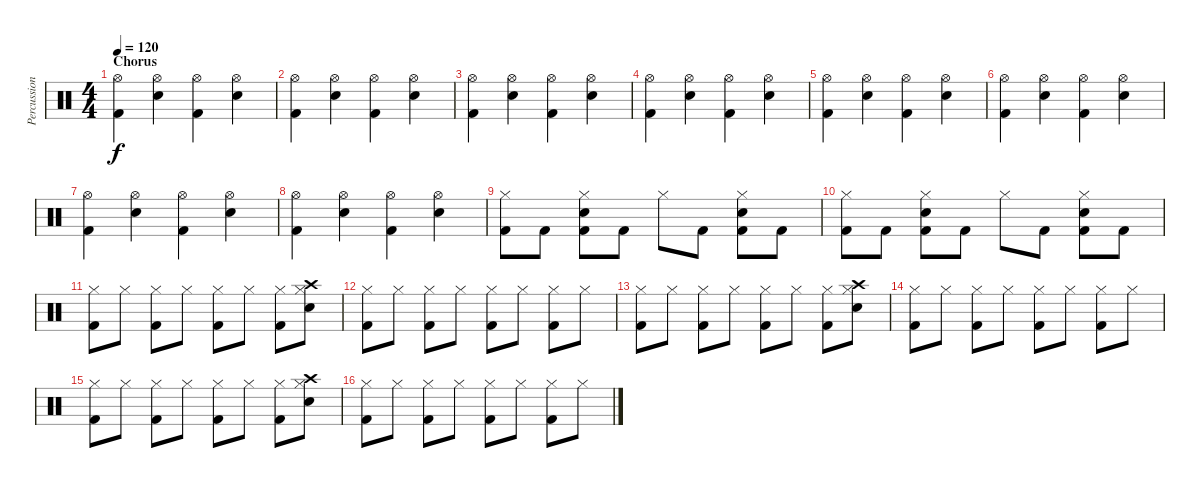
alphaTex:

\track ("Percussion" "Percussion") {instrument percussion}
\staff {score}
\articulation defaults
\ts (4 4)
\section ("" "Chorus")
\tempo 120
\clef neutral
\ks c
("Hi-Hat (open)" "Kick (hit) 2").4{dy f} ("Hi-Hat (open)" "Snare (hit) 2").4 ("Hi-Hat (open)" "Kick (hit) 2").4 ("Hi-Hat (open)" "Snare (hit) 2").4 |
("Hi-Hat (open)" "Kick (hit) 2").4 ("Hi-Hat (open)" "Snare (hit) 2").4 ("Hi-Hat (open)" "Kick (hit) 2").4 ("Hi-Hat (open)" "Snare (hit) 2").4 |
("Hi-Hat (open)" "Kick (hit) 2").4 ("Hi-Hat (open)" "Snare (hit) 2").4 ("Hi-Hat (open)" "Kick (hit) 2").4 ("Hi-Hat (open)" "Snare (hit) 2").4 |
("Hi-Hat (open)" "Kick (hit) 2").4 ("Hi-Hat (open)" "Snare (hit) 2").4 ("Hi-Hat (open)" "Kick (hit) 2").4 ("Hi-Hat (open)" "Snare (hit) 2").4 |
("Hi-Hat (open)" "Kick (hit) 2").4 ("Hi-Hat (open)" "Snare (hit) 2").4 ("Hi-Hat (open)" "Kick (hit) 2").4 ("Hi-Hat (open)" "Snare (hit) 2").4 |
("Hi-Hat (open)" "Kick (hit) 2").4 ("Hi-Hat (open)" "Snare (hit) 2").4 ("Hi-Hat (open)" "Kick (hit) 2").4 ("Hi-Hat (open)" "Snare (hit) 2").4 |
("Hi-Hat (open)" "Kick (hit) 2").4 ("Hi-Hat (open)" "Snare (hit) 2").4 ("Hi-Hat (open)" "Kick (hit) 2").4 ("Hi-Hat (open)" "Snare (hit) 2").4 |
("Hi-Hat (open)" "Kick (hit) 2").4 ("Hi-Hat (open)" "Snare (hit) 2").4 ("Hi-Hat (open)" "Kick (hit) 2").4 ("Hi-Hat (open)" "Snare (hit) 2").4 |
("Hi-Hat (closed)" "Kick (hit) 2").8 "Kick (hit) 2".8 ("Hi-Hat (closed)" "Kick (hit) 2" "Snare (hit) 2").8 "Kick (hit) 2".8 "Hi-Hat (closed)".8 "Kick (hit) 2".8 ("Hi-Hat (closed)" "Kick (hit) 2" "Snare (hit) 2").8 "Kick (hit) 2".8 |
("Hi-Hat (closed)" "Kick (hit) 2").8 "Kick (hit) 2".8 ("Hi-Hat (closed)" "Kick (hit) 2" "Snare (hit) 2").8 "Kick (hit) 2".8 "Hi-Hat (closed)".8 "Kick (hit) 2".8 ("Hi-Hat (closed)" "Kick (hit) 2" "Snare (hit) 2").8 "Kick (hit) 2".8 |
("Hi-Hat (closed)" "Kick (hit) 2").8 "Hi-Hat (closed)".8 ("Hi-Hat (closed)" "Kick (hit) 2").8 "Hi-Hat (closed)".8 ("Hi-Hat (closed)" "Kick (hit) 2").8 "Hi-Hat (closed)".8 ("Hi-Hat (closed)" "Kick (hit) 2").8 ("Hi-Hat (closed)" "Snare (hit) 2" "Crash high (hit)").8 |
("Hi-Hat (closed)" "Kick (hit) 2").8 "Hi-Hat (closed)".8 ("Hi-Hat (closed)" "Kick (hit) 2").8 "Hi-Hat (closed)".8 ("Hi-Hat (closed)" "Kick (hit) 2").8 "Hi-Hat (closed)".8 ("Hi-Hat (closed)" "Kick (hit) 2").8 "Hi-Hat (closed)".8 |
("Hi-Hat (closed)" "Kick (hit) 2").8 "Hi-Hat (closed)".8 ("Hi-Hat (closed)" "Kick (hit) 2").8 "Hi-Hat (closed)".8 ("Hi-Hat (closed)" "Kick (hit) 2").8 "Hi-Hat (closed)".8 ("Hi-Hat (closed)" "Kick (hit) 2").8 ("Hi-Hat (closed)" "Snare (hit) 2" "Crash high (hit)").8 |
("Hi-Hat (closed)" "Kick (hit) 2").8 "Hi-Hat (closed)".8 ("Hi-Hat (closed)" "Kick (hit) 2").8 "Hi-Hat (closed)".8 ("Hi-Hat (closed)" "Kick (hit) 2").8 "Hi-Hat (closed)".8 ("Hi-Hat (closed)" "Kick (hit) 2").8 "Hi-Hat (closed)".8 |
("Hi-Hat (closed)" "Kick (hit) 2").8 "Hi-Hat (closed)".8 ("Hi-Hat (closed)" "Kick (hit) 2").8 "Hi-Hat (closed)".8 ("Hi-Hat (closed)" "Kick (hit) 2").8 "Hi-Hat (closed)".8 ("Hi-Hat (closed)" "Kick (hit) 2").8 ("Hi-Hat (closed)" "Snare (hit) 2" "Crash high (hit)").8 |
("Hi-Hat (closed)" "Kick (hit) 2").8 "Hi-Hat (closed)".8 ("Hi-Hat (closed)" "Kick (hit) 2").8 "Hi-Hat (closed)".8 ("Hi-Hat (closed)" "Kick (hit) 2").8 "Hi-Hat (closed)".8 ("Hi-Hat (closed)" "Kick (hit) 2").8 "Hi-Hat (closed)".8
